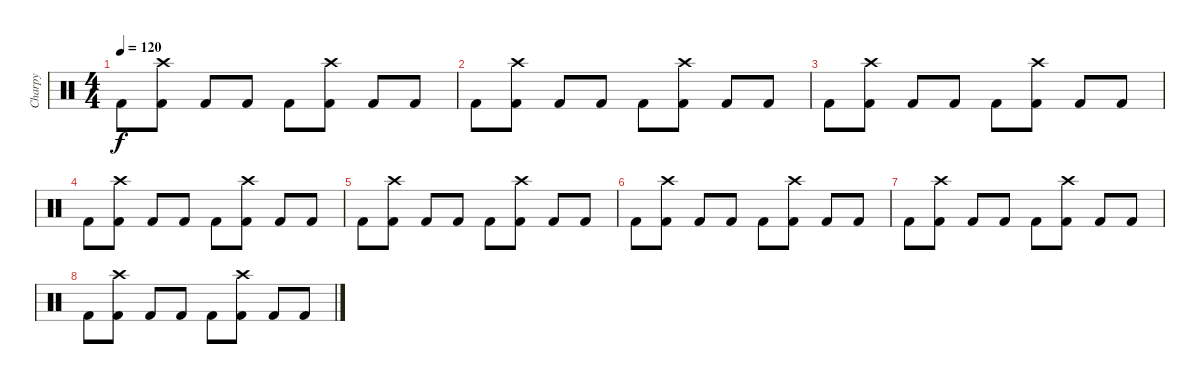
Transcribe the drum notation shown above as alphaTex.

\track ("Charpy" "Charpy") {instrument percussion}
\staff {score}
\articulation defaults
\ts (4 4)
\tempo 120
\clef neutral
\ks c "Kick (hit) 2".8{dy f}
("Crash high (hit)" "Kick (hit) 2").8 "Kick (hit) 2".8 "Kick (hit) 2".8 "Kick (hit) 2".8 ("Crash high (hit)" "Kick (hit) 2").8 "Kick (hit) 2".8 "Kick (hit) 2".8 |
"Kick (hit) 2".8 ("Crash high (hit)" "Kick (hit) 2").8 "Kick (hit) 2".8 "Kick (hit) 2".8 "Kick (hit) 2".8 ("Crash high (hit)" "Kick (hit) 2").8 "Kick (hit) 2".8 "Kick (hit) 2".8 |
"Kick (hit) 2".8 ("Crash high (hit)" "Kick (hit) 2").8 "Kick (hit) 2".8 "Kick (hit) 2".8 "Kick (hit) 2".8 ("Crash high (hit)" "Kick (hit) 2").8 "Kick (hit) 2".8 "Kick (hit) 2".8 |
"Kick (hit) 2".8 ("Crash high (hit)" "Kick (hit) 2").8 "Kick (hit) 2".8 "Kick (hit) 2".8 "Kick (hit) 2".8 ("Crash high (hit)" "Kick (hit) 2").8 "Kick (hit) 2".8 "Kick (hit) 2".8 |
"Kick (hit) 2".8 ("Crash high (hit)" "Kick (hit) 2").8 "Kick (hit) 2".8 "Kick (hit) 2".8 "Kick (hit) 2".8 ("Crash high (hit)" "Kick (hit) 2").8 "Kick (hit) 2".8 "Kick (hit) 2".8 |
"Kick (hit) 2".8 ("Crash high (hit)" "Kick (hit) 2").8 "Kick (hit) 2".8 "Kick (hit) 2".8 "Kick (hit) 2".8 ("Crash high (hit)" "Kick (hit) 2").8 "Kick (hit) 2".8 "Kick (hit) 2".8 |
"Kick (hit) 2".8 ("Crash high (hit)" "Kick (hit) 2").8 "Kick (hit) 2".8 "Kick (hit) 2".8 "Kick (hit) 2".8 ("Crash high (hit)" "Kick (hit) 2").8 "Kick (hit) 2".8 "Kick (hit) 2".8 |
"Kick (hit) 2".8 ("Crash high (hit)" "Kick (hit) 2").8 "Kick (hit) 2".8 "Kick (hit) 2".8 "Kick (hit) 2".8 ("Crash high (hit)" "Kick (hit) 2").8 "Kick (hit) 2".8 "Kick (hit) 2".8
